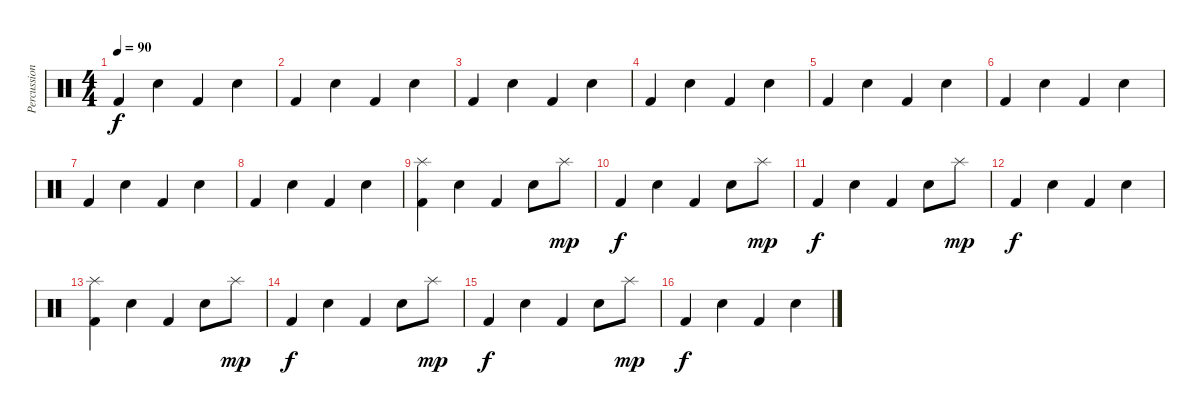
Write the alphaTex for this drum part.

\track ("Percussion" "Percussion") {instrument percussion}
\staff {score}
\articulation defaults
\ts (4 4)
\tempo 90
\clef neutral
\ks c "Kick (hit) 2".4{dy f} "Electric Snare (hit)".4 "Kick (hit) 2".4 "Electric Snare (hit)".4
|
"Kick (hit) 2".4 "Electric Snare (hit)".4 "Kick (hit) 2".4 "Electric Snare (hit)".4 |
"Kick (hit) 2".4 "Electric Snare (hit)".4 "Kick (hit) 2".4 "Electric Snare (hit)".4 |
"Kick (hit) 2".4 "Electric Snare (hit)".4 "Kick (hit) 2".4 "Electric Snare (hit)".4 |
"Kick (hit) 2".4 "Electric Snare (hit)".4 "Kick (hit) 2".4 "Electric Snare (hit)".4 |
"Kick (hit) 2".4 "Electric Snare (hit)".4 "Kick (hit) 2".4 "Electric Snare (hit)".4 |
"Kick (hit) 2".4 "Electric Snare (hit)".4 "Kick (hit) 2".4 "Electric Snare (hit)".4 |
"Kick (hit) 2".4 "Electric Snare (hit)".4 "Kick (hit) 2".4 "Electric Snare (hit)".4 |
("Kick (hit) 2" "Splash (hit)").4 "Electric Snare (hit)".4 "Kick (hit) 2".4 "Electric Snare (hit)".8 "Splash (hit)".8{dy mp} |
"Kick (hit) 2".4{dy f} "Electric Snare (hit)".4 "Kick (hit) 2".4 "Electric Snare (hit)".8 "Splash (hit)".8{dy mp} |
"Kick (hit) 2".4{dy f} "Electric Snare (hit)".4 "Kick (hit) 2".4 "Electric Snare (hit)".8 "Splash (hit)".8{dy mp} |
"Kick (hit) 2".4{dy f} "Electric Snare (hit)".4 "Kick (hit) 2".4 "Electric Snare (hit)".4 |
("Kick (hit) 2" "Splash (hit)").4 "Electric Snare (hit)".4 "Kick (hit) 2".4 "Electric Snare (hit)".8 "Splash (hit)".8{dy mp} |
"Kick (hit) 2".4{dy f} "Electric Snare (hit)".4 "Kick (hit) 2".4 "Electric Snare (hit)".8 "Splash (hit)".8{dy mp} |
"Kick (hit) 2".4{dy f} "Electric Snare (hit)".4 "Kick (hit) 2".4 "Electric Snare (hit)".8 "Splash (hit)".8{dy mp} |
"Kick (hit) 2".4{dy f} "Electric Snare (hit)".4 "Kick (hit) 2".4 "Electric Snare (hit)".4
